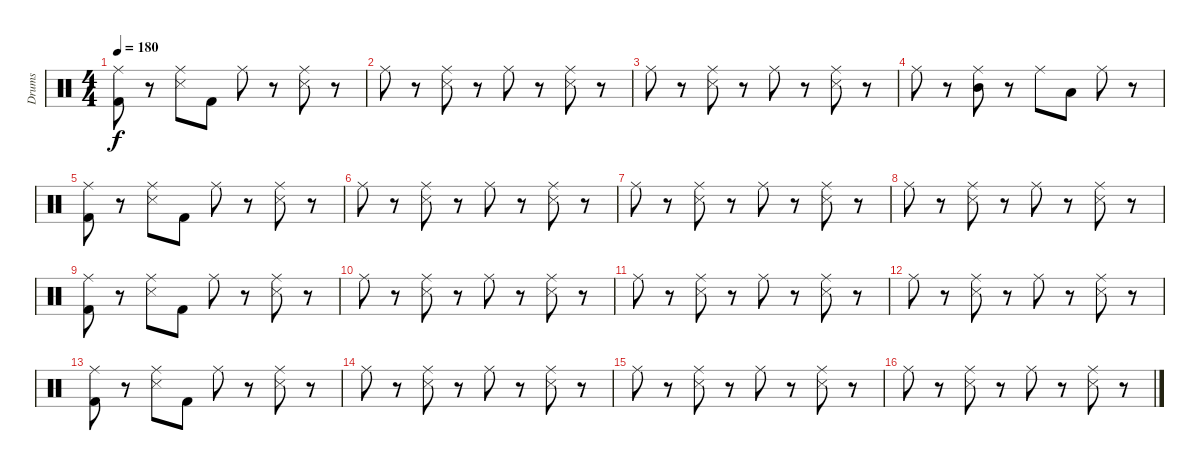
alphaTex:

\track ("Drums" "Drums") {instrument percussion}
\staff {score}
\articulation defaults
\ts (4 4)
\tempo 180
\clef neutral
\ks c
("Ride (middle)" "Kick (hit) 2").8{dy f} r.8 ("Ride (middle)" "Snare (side stick) 3").8 "Kick (hit) 2".8 "Ride (middle)".8 r.8 ("Ride (middle)" "Snare (side stick) 3").8 r.8 |
"Ride (middle)".8 r.8 ("Ride (middle)" "Snare (side stick) 3").8 r.8 "Ride (middle)".8 r.8 ("Ride (middle)" "Snare (side stick) 3").8 r.8 |
"Ride (middle)".8 r.8 ("Ride (middle)" "Snare (side stick) 3").8 r.8 "Ride (middle)".8 r.8 ("Ride (middle)" "Snare (side stick) 3").8 r.8 |
"Ride (middle)".8 r.8 ("Ride (middle)" "Mid Tom (hit)").8 r.8 "Ride (middle)".8 "Low Tom (hit)".8 "Ride (middle)".8 r.8 |
("Ride (middle)" "Kick (hit) 2").8 r.8 ("Ride (middle)" "Snare (side stick) 3").8 "Kick (hit) 2".8 "Ride (middle)".8 r.8 ("Ride (middle)" "Snare (side stick) 3").8 r.8 |
"Ride (middle)".8 r.8 ("Ride (middle)" "Snare (side stick) 3").8 r.8 "Ride (middle)".8 r.8 ("Ride (middle)" "Snare (side stick) 3").8 r.8 |
"Ride (middle)".8 r.8 ("Ride (middle)" "Snare (side stick) 3").8 r.8 "Ride (middle)".8 r.8 ("Ride (middle)" "Snare (side stick) 3").8 r.8 |
"Ride (middle)".8 r.8 ("Ride (middle)" "Snare (side stick) 3").8 r.8 "Ride (middle)".8 r.8 ("Ride (middle)" "Snare (side stick) 3").8 r.8 |
("Ride (middle)" "Kick (hit) 2").8 r.8 ("Ride (middle)" "Snare (side stick) 3").8 "Kick (hit) 2".8 "Ride (middle)".8 r.8 ("Ride (middle)" "Snare (side stick) 3").8 r.8 |
"Ride (middle)".8 r.8 ("Ride (middle)" "Snare (side stick) 3").8 r.8 "Ride (middle)".8 r.8 ("Ride (middle)" "Snare (side stick) 3").8 r.8 |
"Ride (middle)".8 r.8 ("Ride (middle)" "Snare (side stick) 3").8 r.8 "Ride (middle)".8 r.8 ("Ride (middle)" "Snare (side stick) 3").8 r.8 |
"Ride (middle)".8 r.8 ("Ride (middle)" "Snare (side stick) 3").8 r.8 "Ride (middle)".8 r.8 ("Ride (middle)" "Snare (side stick) 3").8 r.8 |
("Ride (middle)" "Kick (hit) 2").8 r.8 ("Ride (middle)" "Snare (side stick) 3").8 "Kick (hit) 2".8 "Ride (middle)".8 r.8 ("Ride (middle)" "Snare (side stick) 3").8 r.8 |
"Ride (middle)".8 r.8 ("Ride (middle)" "Snare (side stick) 3").8 r.8 "Ride (middle)".8 r.8 ("Ride (middle)" "Snare (side stick) 3").8 r.8 |
"Ride (middle)".8 r.8 ("Ride (middle)" "Snare (side stick) 3").8 r.8 "Ride (middle)".8 r.8 ("Ride (middle)" "Snare (side stick) 3").8 r.8 |
"Ride (middle)".8 r.8 ("Ride (middle)" "Snare (side stick) 3").8 r.8 "Ride (middle)".8 r.8 ("Ride (middle)" "Snare (side stick) 3").8 r.8
